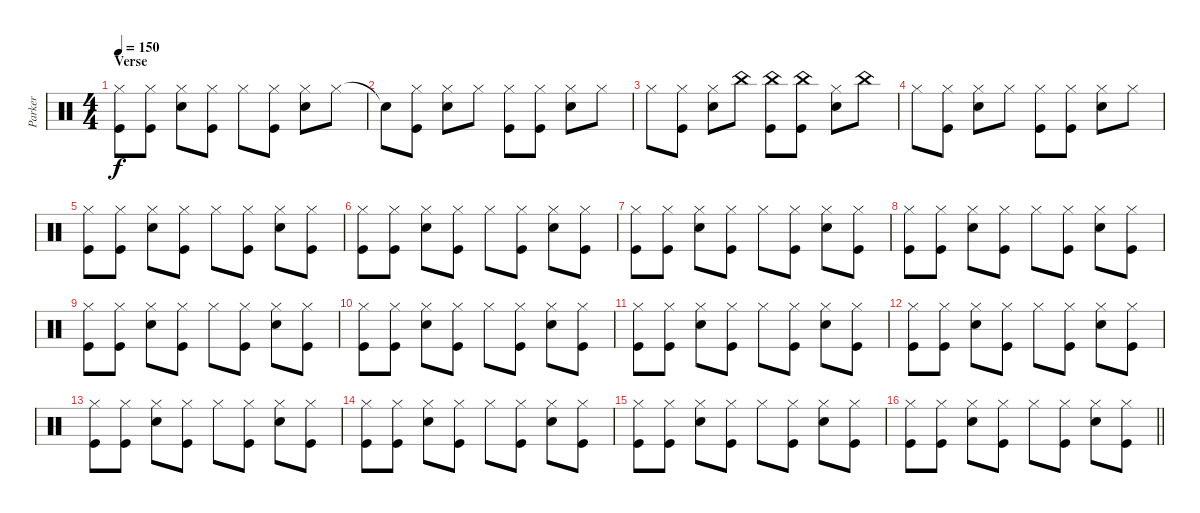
\track ("Parker" "Parker") {instrument percussion}
\staff {score}
\articulation defaults
\ts (4 4)
\section ("" "Verse")
\tempo 150
\clef neutral
\ks c
("Hi-Hat (closed)" "Kick (hit)").8{dy f} ("Hi-Hat (closed)" "Kick (hit)").8 ("Hi-Hat (closed)" "Electric Snare (hit)").8 ("Hi-Hat (closed)" "Kick (hit)").8 "Hi-Hat (closed)".8 ("Hi-Hat (closed)" "Kick (hit)").8 ("Hi-Hat (closed)" "Electric Snare (hit)").8 "Hi-Hat (closed)".8 |
"Snare (hit)"{t}.8 ("Hi-Hat (closed)" "Kick (hit)").8 ("Hi-Hat (closed)" "Electric Snare (hit)").8 "Hi-Hat (closed)".8 ("Hi-Hat (closed)" "Kick (hit)").8 ("Hi-Hat (closed)" "Kick (hit)").8 ("Hi-Hat (closed)" "Electric Snare (hit)").8 "Hi-Hat (closed)".8 |
"Hi-Hat (closed)".8 ("Hi-Hat (closed)" "Kick (hit)").8 ("Hi-Hat (closed)" "Electric Snare (hit)").8 "China (hit)".8 ("China (hit)" "Kick (hit)").8 ("China (hit)" "Kick (hit)").8 ("Hi-Hat (closed)" "Electric Snare (hit)").8 "China (hit)".8 |
"Hi-Hat (closed)".8 ("Hi-Hat (closed)" "Kick (hit)").8 ("Hi-Hat (closed)" "Electric Snare (hit)").8 "Hi-Hat (closed)".8 ("Hi-Hat (closed)" "Kick (hit)").8 ("Hi-Hat (closed)" "Kick (hit)").8 ("Hi-Hat (closed)" "Electric Snare (hit)").8 "Hi-Hat (closed)".8 |
("Hi-Hat (closed)" "Kick (hit)").8 ("Hi-Hat (closed)" "Kick (hit)").8 ("Hi-Hat (closed)" "Electric Snare (hit)").8 ("Hi-Hat (closed)" "Kick (hit)").8 "Hi-Hat (closed)".8 ("Hi-Hat (closed)" "Kick (hit)").8 ("Hi-Hat (closed)" "Electric Snare (hit)").8 ("Hi-Hat (closed)" "Kick (hit)").8 |
("Hi-Hat (closed)" "Kick (hit)").8 ("Hi-Hat (closed)" "Kick (hit)").8 ("Hi-Hat (closed)" "Electric Snare (hit)").8 ("Hi-Hat (closed)" "Kick (hit)").8 "Hi-Hat (closed)".8 ("Hi-Hat (closed)" "Kick (hit)").8 ("Hi-Hat (closed)" "Electric Snare (hit)").8 ("Hi-Hat (closed)" "Kick (hit)").8 |
("Hi-Hat (closed)" "Kick (hit)").8 ("Hi-Hat (closed)" "Kick (hit)").8 ("Hi-Hat (closed)" "Electric Snare (hit)").8 ("Hi-Hat (closed)" "Kick (hit)").8 "Hi-Hat (closed)".8 ("Hi-Hat (closed)" "Kick (hit)").8 ("Hi-Hat (closed)" "Electric Snare (hit)").8 ("Hi-Hat (closed)" "Kick (hit)").8 |
("Hi-Hat (closed)" "Kick (hit)").8 ("Hi-Hat (closed)" "Kick (hit)").8 ("Hi-Hat (closed)" "Electric Snare (hit)").8 ("Hi-Hat (closed)" "Kick (hit)").8 "Hi-Hat (closed)".8 ("Hi-Hat (closed)" "Kick (hit)").8 ("Hi-Hat (closed)" "Electric Snare (hit)").8 ("Hi-Hat (closed)" "Kick (hit)").8 |
("Hi-Hat (closed)" "Kick (hit)").8 ("Hi-Hat (closed)" "Kick (hit)").8 ("Hi-Hat (closed)" "Electric Snare (hit)").8 ("Hi-Hat (closed)" "Kick (hit)").8 "Hi-Hat (closed)".8 ("Hi-Hat (closed)" "Kick (hit)").8 ("Hi-Hat (closed)" "Electric Snare (hit)").8 ("Hi-Hat (closed)" "Kick (hit)").8 |
("Hi-Hat (closed)" "Kick (hit)").8 ("Hi-Hat (closed)" "Kick (hit)").8 ("Hi-Hat (closed)" "Electric Snare (hit)").8 ("Hi-Hat (closed)" "Kick (hit)").8 "Hi-Hat (closed)".8 ("Hi-Hat (closed)" "Kick (hit)").8 ("Hi-Hat (closed)" "Electric Snare (hit)").8 ("Hi-Hat (closed)" "Kick (hit)").8 |
("Hi-Hat (closed)" "Kick (hit)").8 ("Hi-Hat (closed)" "Kick (hit)").8 ("Hi-Hat (closed)" "Electric Snare (hit)").8 ("Hi-Hat (closed)" "Kick (hit)").8 "Hi-Hat (closed)".8 ("Hi-Hat (closed)" "Kick (hit)").8 ("Hi-Hat (closed)" "Electric Snare (hit)").8 ("Hi-Hat (closed)" "Kick (hit)").8 |
("Hi-Hat (closed)" "Kick (hit)").8 ("Hi-Hat (closed)" "Kick (hit)").8 ("Hi-Hat (closed)" "Electric Snare (hit)").8 ("Hi-Hat (closed)" "Kick (hit)").8 "Hi-Hat (closed)".8 ("Hi-Hat (closed)" "Kick (hit)").8 ("Hi-Hat (closed)" "Electric Snare (hit)").8 ("Hi-Hat (closed)" "Kick (hit)").8 |
("Hi-Hat (closed)" "Kick (hit)").8 ("Hi-Hat (closed)" "Kick (hit)").8 ("Hi-Hat (closed)" "Electric Snare (hit)").8 ("Hi-Hat (closed)" "Kick (hit)").8 "Hi-Hat (closed)".8 ("Hi-Hat (closed)" "Kick (hit)").8 ("Hi-Hat (closed)" "Electric Snare (hit)").8 ("Hi-Hat (closed)" "Kick (hit)").8 |
("Hi-Hat (closed)" "Kick (hit)").8 ("Hi-Hat (closed)" "Kick (hit)").8 ("Hi-Hat (closed)" "Electric Snare (hit)").8 ("Hi-Hat (closed)" "Kick (hit)").8 "Hi-Hat (closed)".8 ("Hi-Hat (closed)" "Kick (hit)").8 ("Hi-Hat (closed)" "Electric Snare (hit)").8 ("Hi-Hat (closed)" "Kick (hit)").8 |
("Hi-Hat (closed)" "Kick (hit)").8 ("Hi-Hat (closed)" "Kick (hit)").8 ("Hi-Hat (closed)" "Electric Snare (hit)").8 ("Hi-Hat (closed)" "Kick (hit)").8 "Hi-Hat (closed)".8 ("Hi-Hat (closed)" "Kick (hit)").8 ("Hi-Hat (closed)" "Electric Snare (hit)").8 ("Hi-Hat (closed)" "Kick (hit)").8 |
\barLineRight lightlight
("Hi-Hat (closed)" "Kick (hit)").8 ("Hi-Hat (closed)" "Kick (hit)").8 ("Hi-Hat (closed)" "Electric Snare (hit)").8 ("Hi-Hat (closed)" "Kick (hit)").8 "Hi-Hat (closed)".8 ("Hi-Hat (closed)" "Kick (hit)").8 ("Hi-Hat (closed)" "Electric Snare (hit)").8 ("Hi-Hat (closed)" "Kick (hit)").8
